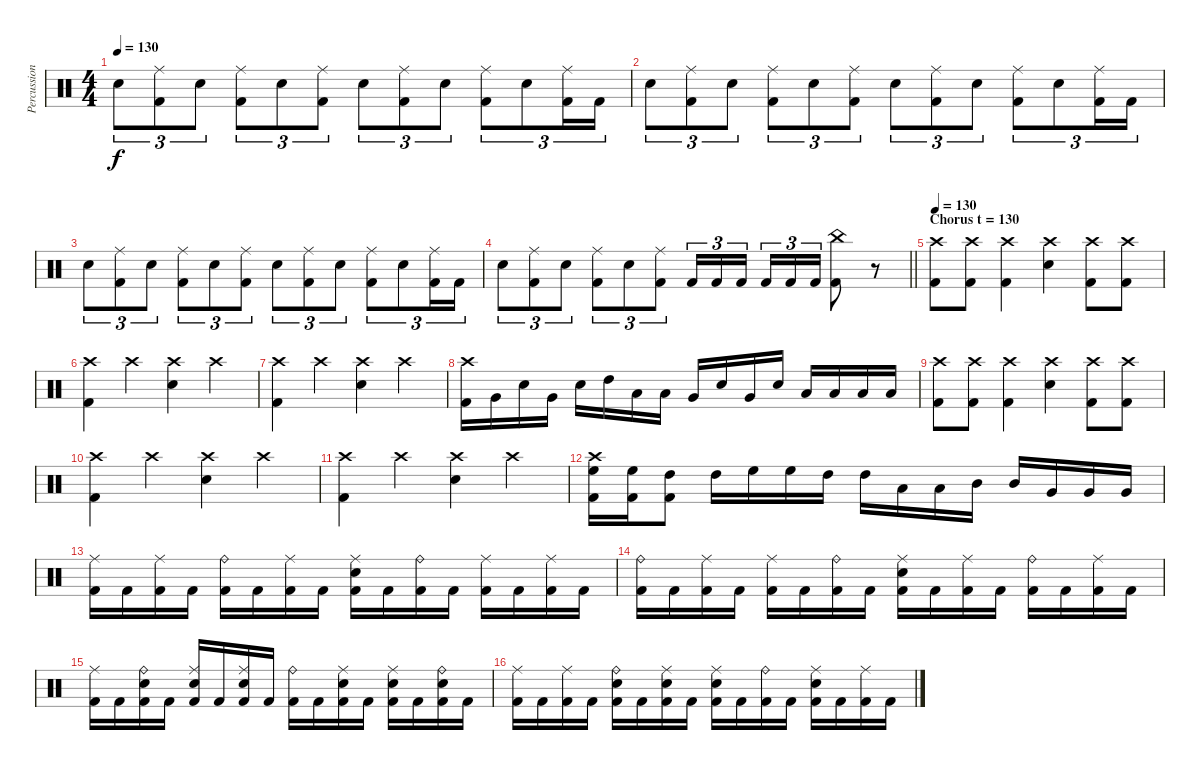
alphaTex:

\track ("Percussion" "Percussion") {instrument percussion}
\staff {score}
\articulation defaults
\ts (4 4)
\tempo 130
\clef neutral
\ks c "Electric Snare (hit)".8{tu (3 2) dy f}
("Ride (middle)" "Kick (hit) 2").8{tu (3 2)} "Electric Snare (hit)".8{tu (3 2)} ("Ride (middle)" "Kick (hit) 2").8{tu (3 2)} "Electric Snare (hit)".8{tu (3 2)} ("Ride (middle)" "Kick (hit) 2").8{tu (3 2)} "Electric Snare (hit)".8{tu (3 2)} ("Ride (middle)" "Kick (hit) 2").8{tu (3 2)} "Electric Snare (hit)".8{tu (3 2)} ("Ride (middle)" "Kick (hit) 2").8{tu (3 2)} "Electric Snare (hit)".8{tu (3 2)} ("Ride (middle)" "Kick (hit) 2").16{tu (3 2)} "Kick (hit) 2".16{tu (3 2)} |
"Electric Snare (hit)".8{tu (3 2)} ("Ride (middle)" "Kick (hit) 2").8{tu (3 2)} "Electric Snare (hit)".8{tu (3 2)} ("Ride (middle)" "Kick (hit) 2").8{tu (3 2)} "Electric Snare (hit)".8{tu (3 2)} ("Ride (middle)" "Kick (hit) 2").8{tu (3 2)} "Electric Snare (hit)".8{tu (3 2)} ("Ride (middle)" "Kick (hit) 2").8{tu (3 2)} "Electric Snare (hit)".8{tu (3 2)} ("Ride (middle)" "Kick (hit) 2").8{tu (3 2)} "Electric Snare (hit)".8{tu (3 2)} ("Ride (middle)" "Kick (hit) 2").16{tu (3 2)} "Kick (hit) 2".16{tu (3 2)} |
"Electric Snare (hit)".8{tu (3 2)} ("Ride (middle)" "Kick (hit) 2").8{tu (3 2)} "Electric Snare (hit)".8{tu (3 2)} ("Ride (middle)" "Kick (hit) 2").8{tu (3 2)} "Electric Snare (hit)".8{tu (3 2)} ("Ride (middle)" "Kick (hit) 2").8{tu (3 2)} "Electric Snare (hit)".8{tu (3 2)} ("Ride (middle)" "Kick (hit) 2").8{tu (3 2)} "Electric Snare (hit)".8{tu (3 2)} ("Ride (middle)" "Kick (hit) 2").8{tu (3 2)} "Electric Snare (hit)".8{tu (3 2)} ("Ride (middle)" "Kick (hit) 2").16{tu (3 2)} "Kick (hit) 2".16{tu (3 2)} |
\barLineRight lightlight "Electric Snare (hit)".8{tu (3 2)}
("Ride (middle)" "Kick (hit) 2").8{tu (3 2)} "Electric Snare (hit)".8{tu (3 2)} ("Ride (middle)" "Kick (hit) 2").8{tu (3 2)} "Electric Snare (hit)".8{tu (3 2)} ("Ride (middle)" "Kick (hit) 2").8{tu (3 2)} "Kick (hit) 2".16{tu (3 2)} "Kick (hit) 2".16{tu (3 2)} "Kick (hit) 2".16{tu (3 2) beam splitsecondary} "Kick (hit) 2".16{tu (3 2)} "Kick (hit) 2".16{tu (3 2)} "Kick (hit) 2".16{tu (3 2)} ("China (hit)" "Kick (hit) 2").8 r.8 |
\section ("" "Chorus t = 130")
\tempo 130
("Crash high (hit)" "Kick (hit) 2").8 ("Crash high (hit)" "Kick (hit) 2").8 ("Crash high (hit)" "Kick (hit) 2").4 ("Crash high (hit)" "Electric Snare (hit)").4 ("Crash high (hit)" "Kick (hit) 2").8 ("Crash high (hit)" "Kick (hit) 2").8 |
("Crash high (hit)" "Kick (hit) 2").4 "Crash high (hit)".4 ("Crash high (hit)" "Electric Snare (hit)").4 "Crash high (hit)".4 |
("Crash high (hit)" "Kick (hit) 2").4 "Crash high (hit)".4 ("Crash high (hit)" "Electric Snare (hit)").4 "Crash high (hit)".4 |
("Crash high (hit)" "Kick (hit) 2").16 "Very Low Tom (hit)".16 "Electric Snare (hit)".16 "Very Low Tom (hit)".16 "Electric Snare (hit)".16 "High Tom (hit)".16 "Low Tom (hit)".16 "Low Tom (hit)".16 "Very Low Tom (hit)".16 "Electric Snare (hit)".16 "Very Low Tom (hit)".16 "Electric Snare (hit)".16 "Low Floor Tom (hit)".16 "Low Floor Tom (hit)".16 "Low Floor Tom (hit)".16 "Low Floor Tom (hit)".16 |
("Crash high (hit)" "Kick (hit) 2").8 ("Crash high (hit)" "Kick (hit) 2").8 ("Crash high (hit)" "Kick (hit) 2").4 ("Crash high (hit)" "Electric Snare (hit)").4 ("Crash high (hit)" "Kick (hit) 2").8 ("Crash high (hit)" "Kick (hit) 2").8 |
("Crash high (hit)" "Kick (hit) 2").4 "Crash high (hit)".4 ("Crash high (hit)" "Electric Snare (hit)").4 "Crash high (hit)".4 |
("Crash high (hit)" "Kick (hit) 2").4 "Crash high (hit)".4 ("Crash high (hit)" "Electric Snare (hit)").4 "Crash high (hit)".4 |
("Crash high (hit)" "High Floor Tom (hit)" "Kick (hit) 2").16 ("High Floor Tom (hit)" "Kick (hit) 2").16 ("High Tom (hit)" "Kick (hit) 2").8 "High Tom (hit)".16 "High Floor Tom (hit)".16 "High Floor Tom (hit)".16 "High Tom (hit)".16 "High Tom (hit)".16 "Low Tom (hit)".16 "Low Tom (hit)".16 "Mid Tom (hit)".16 "Mid Tom (hit)".16 "Very Low Tom (hit)".16 "Very Low Tom (hit)".16 "Very Low Tom (hit)".16 |
("Ride (middle)" "Kick (hit) 2").16 "Kick (hit) 2".16 ("Ride (middle)" "Kick (hit) 2").16 "Kick (hit) 2".16 ("Ride (bell)" "Kick (hit) 2").16 "Kick (hit) 2".16 ("Ride (middle)" "Kick (hit) 2").16 "Kick (hit) 2".16 ("Ride (middle)" "Electric Snare (hit)" "Kick (hit) 2").16 "Kick (hit) 2".16 ("Ride (bell)" "Kick (hit) 2").16 "Kick (hit) 2".16 ("Ride (middle)" "Kick (hit) 2").16 "Kick (hit) 2".16 ("Ride (middle)" "Kick (hit) 2").16 "Kick (hit) 2".16 |
("Ride (bell)" "Kick (hit) 2").16 "Kick (hit) 2".16 ("Ride (middle)" "Kick (hit) 2").16 "Kick (hit) 2".16 ("Ride (middle)" "Kick (hit) 2").16 "Kick (hit) 2".16 ("Ride (bell)" "Kick (hit) 2").16 "Kick (hit) 2".16 ("Ride (middle)" "Electric Snare (hit)" "Kick (hit) 2").16 "Kick (hit) 2".16 ("Ride (middle)" "Kick (hit) 2").16 "Kick (hit) 2".16 ("Ride (bell)" "Kick (hit) 2").16 "Kick (hit) 2".16 ("Ride (middle)" "Kick (hit) 2").16 "Kick (hit) 2".16 |
("Ride (middle)" "Kick (hit) 2").16 "Kick (hit) 2".16 ("Ride (bell)" "Electric Snare (hit)" "Kick (hit) 2").16 "Kick (hit) 2".16 ("Ride (middle)" "Electric Snare (hit)" "Kick (hit) 2").16 "Kick (hit) 2".16 ("Ride (middle)" "Electric Snare (hit)" "Kick (hit) 2").16 "Kick (hit) 2".16 ("Ride (bell)" "Kick (hit) 2").16 "Kick (hit) 2".16 ("Ride (middle)" "Electric Snare (hit)" "Kick (hit) 2").16 "Kick (hit) 2".16 ("Ride (middle)" "Electric Snare (hit)" "Kick (hit) 2").16 "Kick (hit) 2".16 ("Ride (bell)" "Electric Snare (hit)" "Kick (hit) 2").16 "Kick (hit) 2".16 |
("Ride (middle)" "Kick (hit) 2").16 "Kick (hit) 2".16 ("Ride (middle)" "Kick (hit) 2").16 "Kick (hit) 2".16 ("Ride (bell)" "Electric Snare (hit)" "Kick (hit) 2").16 "Kick (hit) 2".16 ("Ride (middle)" "Electric Snare (hit)" "Kick (hit) 2").16 "Kick (hit) 2".16 ("Ride (middle)" "Electric Snare (hit)" "Kick (hit) 2").16 "Kick (hit) 2".16 ("Ride (bell)" "Kick (hit) 2").16 "Kick (hit) 2".16 ("Ride (middle)" "Electric Snare (hit)" "Kick (hit) 2").16 "Kick (hit) 2".16 ("Ride (middle)" "Kick (hit) 2").16 "Kick (hit) 2".16
